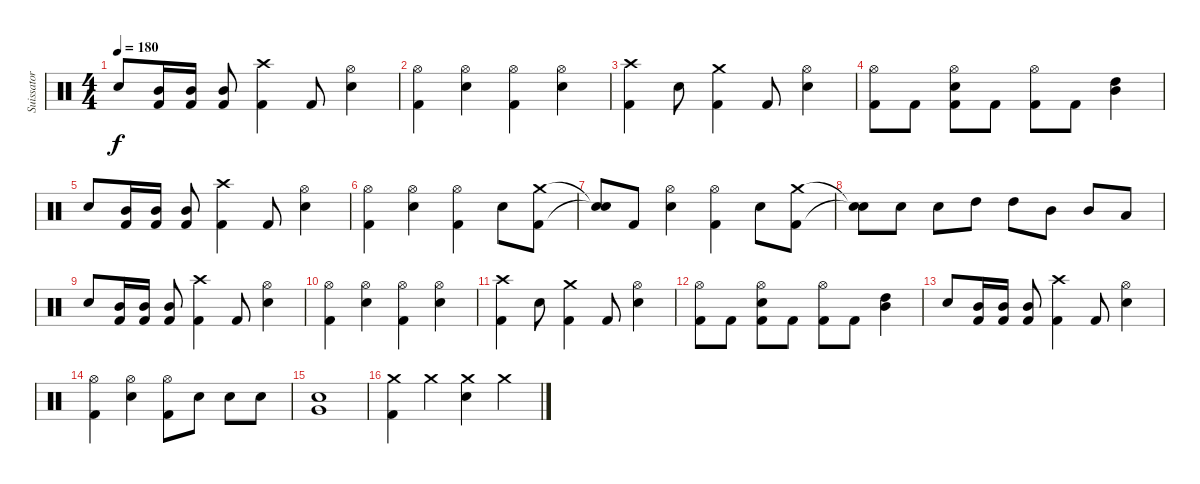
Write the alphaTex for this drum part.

\track ("Suissator" "Suissator") {instrument percussion}
\staff {score}
\articulation defaults
\ts (4 4)
\tempo 180
\clef neutral
\ks c "Electric Snare (hit)".8{dy f}
("Kick (hit) 2" "Mid Tom (hit)").16 ("Kick (hit) 2" "Mid Tom (hit)").16 ("Kick (hit) 2" "Mid Tom (hit)").8 ("Kick (hit) 2" "Crash high (hit)").4 "Kick (hit) 2".8 ("Electric Snare (hit)" "Hi-Hat (open)").4 |
("Kick (hit) 2" "Hi-Hat (open)").4 ("Electric Snare (hit)" "Hi-Hat (open)").4 ("Kick (hit) 2" "Hi-Hat (open)").4 ("Electric Snare (hit)" "Hi-Hat (open)").4 |
("Kick (hit) 2" "Crash high (hit)").4 "Electric Snare (hit)".8 ("Kick (hit) 2" "Crash medium (hit)").4 "Kick (hit) 2".8 ("Electric Snare (hit)" "Hi-Hat (open)").4 |
("Kick (hit) 2" "Hi-Hat (open)").8 "Kick (hit) 2".8 ("Kick (hit) 2" "Electric Snare (hit)" "Hi-Hat (open)").8 "Kick (hit) 2".8 ("Kick (hit) 2" "Hi-Hat (open)").8 "Kick (hit) 2".8 ("Mid Tom (hit)" "High Tom (hit)").4 |
"Electric Snare (hit)".8 ("Kick (hit) 2" "Mid Tom (hit)").16 ("Kick (hit) 2" "Mid Tom (hit)").16 ("Kick (hit) 2" "Mid Tom (hit)").8 ("Kick (hit) 2" "Crash high (hit)").4 "Kick (hit) 2".8 ("Electric Snare (hit)" "Hi-Hat (open)").4 |
("Kick (hit) 2" "Hi-Hat (open)").4 ("Electric Snare (hit)" "Hi-Hat (open)").4 ("Kick (hit) 2" "Hi-Hat (open)").4 "Electric Snare (hit)".8 ("Kick (hit) 2" "Crash medium (hit)").8 |
("Snare (hit)"{t} "Snare (hit)"{t}).8 "Kick (hit) 2".8 ("Electric Snare (hit)" "Hi-Hat (open)").4 ("Kick (hit) 2" "Hi-Hat (open)").4 "Electric Snare (hit)".8 ("Kick (hit) 2" "Crash medium (hit)").8 |
("Snare (hit)"{t} "Snare (hit)"{t}).8 "Electric Snare (hit)".8 "Electric Snare (hit)".8 "High Tom (hit)".8 "High Tom (hit)".8 "Mid Tom (hit)".8 "Mid Tom (hit)".8 "Low Tom (hit)".8 |
"Electric Snare (hit)".8 ("Kick (hit) 2" "Mid Tom (hit)").16 ("Kick (hit) 2" "Mid Tom (hit)").16 ("Kick (hit) 2" "Mid Tom (hit)").8 ("Kick (hit) 2" "Crash high (hit)").4 "Kick (hit) 2".8 ("Electric Snare (hit)" "Hi-Hat (open)").4 |
("Kick (hit) 2" "Hi-Hat (open)").4 ("Electric Snare (hit)" "Hi-Hat (open)").4 ("Kick (hit) 2" "Hi-Hat (open)").4 ("Electric Snare (hit)" "Hi-Hat (open)").4 |
("Kick (hit) 2" "Crash high (hit)").4 "Electric Snare (hit)".8 ("Kick (hit) 2" "Crash medium (hit)").4 "Kick (hit) 2".8 ("Electric Snare (hit)" "Hi-Hat (open)").4 |
("Kick (hit) 2" "Hi-Hat (open)").8 "Kick (hit) 2".8 ("Kick (hit) 2" "Electric Snare (hit)" "Hi-Hat (open)").8 "Kick (hit) 2".8 ("Kick (hit) 2" "Hi-Hat (open)").8 "Kick (hit) 2".8 ("Mid Tom (hit)" "High Tom (hit)").4 |
"Electric Snare (hit)".8 ("Kick (hit) 2" "Mid Tom (hit)").16 ("Kick (hit) 2" "Mid Tom (hit)").16 ("Kick (hit) 2" "Mid Tom (hit)").8 ("Kick (hit) 2" "Crash high (hit)").4 "Kick (hit) 2".8 ("Electric Snare (hit)" "Hi-Hat (open)").4 |
("Kick (hit) 2" "Hi-Hat (open)").4 ("Electric Snare (hit)" "Hi-Hat (open)").4 ("Kick (hit) 2" "Hi-Hat (open)").8 "Electric Snare (hit)".8 "Electric Snare (hit)".8 "Electric Snare (hit)".8 |
("Very Low Tom (hit)" "Electric Snare (hit)").1 |
("Kick (hit) 2" "Crash medium (hit)").4 "Crash medium (hit)".4 ("Electric Snare (hit)" "Crash medium (hit)").4 "Crash medium (hit)".4
